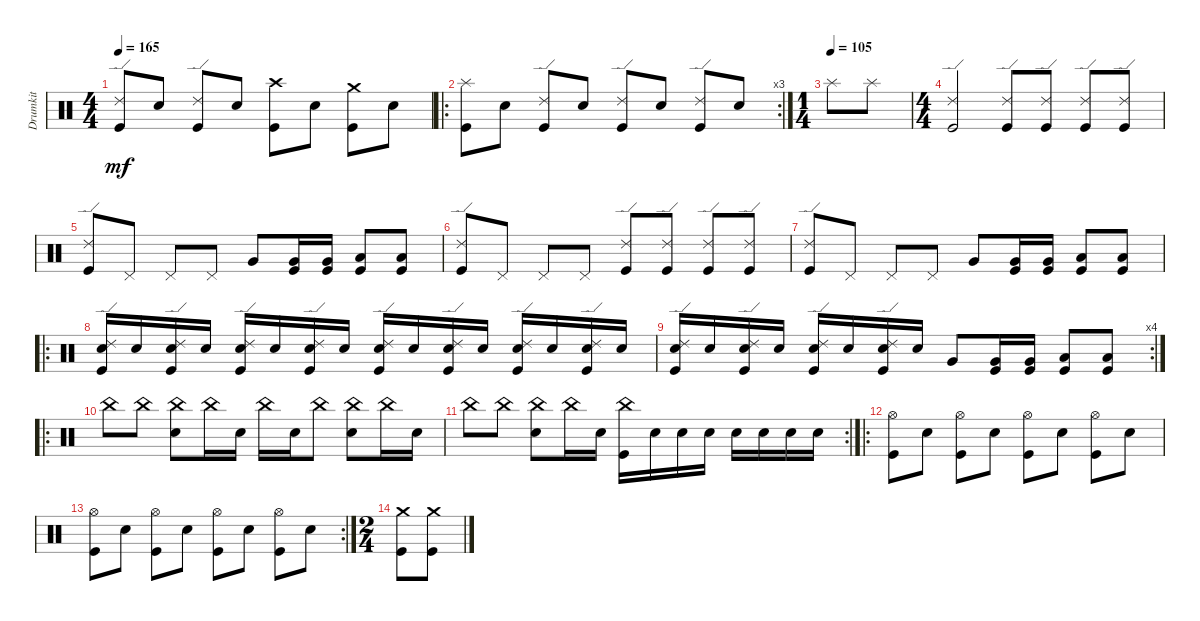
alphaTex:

\track ("Drumkit" "Drumkit") {instrument percussion}
\staff {score}
\articulation defaults
\ts (4 4)
\tempo 165
\clef neutral
\ks c
("Kick (hit)" "Ride (edge) 2").8{dy mf} "Snare (hit) 2".8 ("Kick (hit)" "Ride (edge) 2").8 "Snare (hit) 2".8 ("Crash high (hit)" "Kick (hit)").8 "Snare (hit) 2".8 ("Crash medium (hit)" "Kick (hit)").8 "Snare (hit) 2".8 |
\ro
\rc 3
("Kick (hit)" "Splash (hit)").8 "Snare (hit) 2".8 ("Kick (hit)" "Ride (edge) 2").8 "Snare (hit) 2".8 ("Kick (hit)" "Ride (edge) 2").8 "Snare (hit) 2".8 ("Kick (hit)" "Ride (edge) 2").8 "Snare (hit) 2".8 |
\ts (1 4)
\tempo (105)
"Splash (hit)".8 "Splash (hit)".8 |
\ts (4 4)
("Kick (hit)" "Ride (edge) 2").2 ("Kick (hit)" "Ride (edge) 2").8 ("Kick (hit)" "Ride (edge) 2").8 ("Kick (hit)" "Ride (edge) 2").8 ("Kick (hit)" "Ride (edge) 2").8 |
("Kick (hit)" "Ride (edge) 2").8 "Pedal Hi-Hat (hit)".8 "Pedal Hi-Hat (hit)".8 "Pedal Hi-Hat (hit)".8 "Very Low Tom (hit)".8 ("Very Low Tom (hit)" "Kick (hit)").16 ("Very Low Tom (hit)" "Kick (hit)").16 ("Low Floor Tom (hit)" "Kick (hit)").8 ("Low Floor Tom (hit)" "Kick (hit)").8 |
("Kick (hit)" "Ride (edge) 2").8 "Pedal Hi-Hat (hit)".8 "Pedal Hi-Hat (hit)".8 "Pedal Hi-Hat (hit)".8 ("Kick (hit)" "Ride (edge) 2").8 ("Kick (hit)" "Ride (edge) 2").8 ("Kick (hit)" "Ride (edge) 2").8 ("Kick (hit)" "Ride (edge) 2").8 |
("Kick (hit)" "Ride (edge) 2").8 "Pedal Hi-Hat (hit)".8 "Pedal Hi-Hat (hit)".8 "Pedal Hi-Hat (hit)".8 "Very Low Tom (hit)".8 ("Very Low Tom (hit)" "Kick (hit)").16 ("Very Low Tom (hit)" "Kick (hit)").16 ("Low Floor Tom (hit)" "Kick (hit)").8 ("Low Floor Tom (hit)" "Kick (hit)").8 |
\ro
("Snare (hit) 2" "Ride (edge) 2" "Kick (hit)").16 "Snare (hit) 2".16 ("Snare (hit) 2" "Ride (edge) 2" "Kick (hit)").16 "Snare (hit) 2".16 ("Snare (hit) 2" "Ride (edge) 2" "Kick (hit)").16 "Snare (hit) 2".16 ("Snare (hit) 2" "Ride (edge) 2" "Kick (hit)").16 "Snare (hit) 2".16 ("Snare (hit) 2" "Ride (edge) 2" "Kick (hit)").16 "Snare (hit) 2".16 ("Snare (hit) 2" "Ride (edge) 2" "Kick (hit)").16 "Snare (hit) 2".16 ("Snare (hit) 2" "Ride (edge) 2" "Kick (hit)").16 "Snare (hit) 2".16 ("Snare (hit) 2" "Ride (edge) 2" "Kick (hit)").16 "Snare (hit) 2".16 |
\rc 4
("Snare (hit) 2" "Ride (edge) 2" "Kick (hit)").16 "Snare (hit) 2".16 ("Snare (hit) 2" "Ride (edge) 2" "Kick (hit)").16 "Snare (hit) 2".16 ("Snare (hit) 2" "Ride (edge) 2" "Kick (hit)").16 "Snare (hit) 2".16 ("Snare (hit) 2" "Ride (edge) 2" "Kick (hit)").16 "Snare (hit) 2".16 "Very Low Tom (hit)".8 ("Very Low Tom (hit)" "Kick (hit)").16 ("Very Low Tom (hit)" "Kick (hit)").16 ("Low Floor Tom (hit)" "Kick (hit)").8 ("Low Floor Tom (hit)" "Kick (hit)").8 |
\ro "China (hit)".8 "China (hit)".8
("Snare (hit) 2" "China (hit)").8 "China (hit)".16 "Snare (hit) 2".16 "China (hit)".16 "Snare (hit) 2".16 "China (hit)".8 ("Snare (hit) 2" "China (hit)").8 "China (hit)".16 "Snare (hit) 2".16 |
\rc 2 "China (hit)".8 "China (hit)".8
("Snare (hit) 2" "China (hit)").8 "China (hit)".16 "Snare (hit) 2".16 ("China (hit)" "Kick (hit)").16 "Snare (hit) 2".16 "Snare (hit) 2".16 "Snare (hit) 2".16 "Snare (hit) 2".16 "Snare (hit) 2".16 "Snare (hit) 2".16 "Snare (hit) 2".16 |
\ro
("Hi-Hat (open)" "Kick (hit)").8 "Snare (hit) 2".8 ("Hi-Hat (open)" "Kick (hit)").8 "Snare (hit) 2".8 ("Hi-Hat (open)" "Kick (hit)").8 "Snare (hit) 2".8 ("Hi-Hat (open)" "Kick (hit)").8 "Snare (hit) 2".8 |
\rc 2
("Hi-Hat (open)" "Kick (hit)").8 "Snare (hit) 2".8 ("Hi-Hat (open)" "Kick (hit)").8 "Snare (hit) 2".8 ("Hi-Hat (open)" "Kick (hit)").8 "Snare (hit) 2".8 ("Hi-Hat (open)" "Kick (hit)").8 "Snare (hit) 2".8 |
\ts (2 4)
("Kick (hit)" "Crash medium (hit)").8 ("Kick (hit)" "Crash medium (hit)").8
